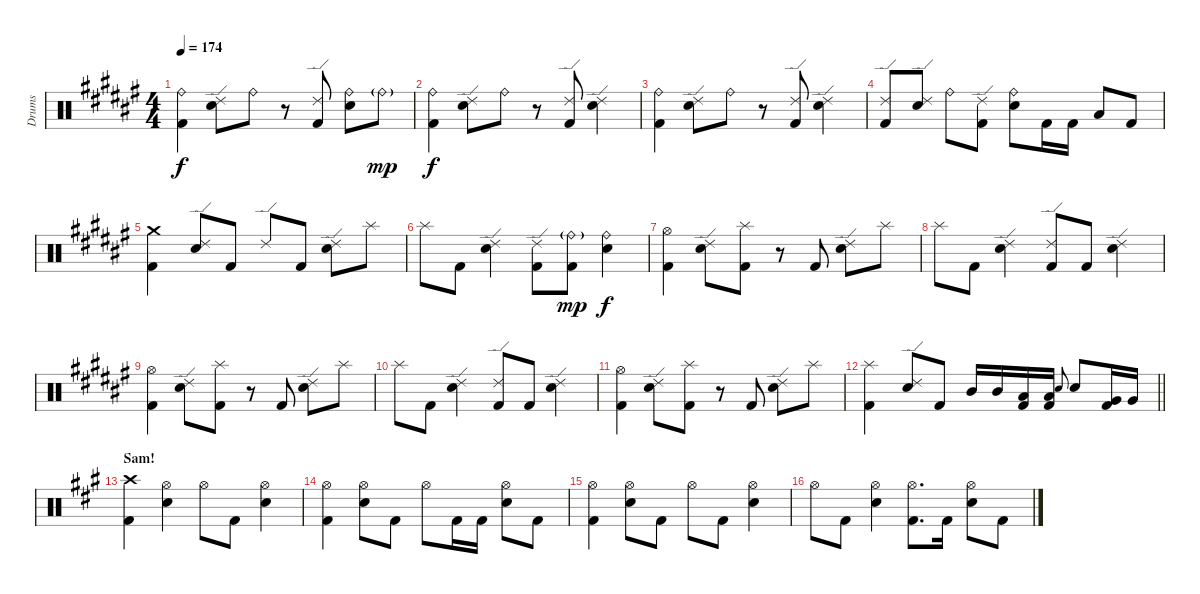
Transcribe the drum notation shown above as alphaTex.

\track ("Drums" "Drums") {instrument percussion}
\staff {score}
\articulation defaults
\ts (4 4)
\tempo 174
\clef neutral
\ks f#
("Ride (bell)" "Kick (hit) 2").4{dy f} ("Ride (edge) 2" "Snare (hit) 2").8 "Ride (bell)".8 r.8 ("Ride (edge) 2" "Kick (hit) 2").8 ("Ride (bell)" "Snare (hit) 2").8 "Ride (bell)"{g}.8{dy mp} |
("Ride (bell)" "Kick (hit) 2").4{dy f} ("Ride (edge) 2" "Snare (hit) 2").8 "Ride (bell)".8 r.8 ("Ride (edge) 2" "Kick (hit) 2").8 ("Ride (edge) 2" "Snare (hit) 2").4 |
("Ride (bell)" "Kick (hit) 2").4 ("Ride (edge) 2" "Snare (hit) 2").8 "Ride (bell)".8 r.8 ("Ride (edge) 2" "Kick (hit) 2").8 ("Ride (edge) 2" "Snare (hit) 2").4 |
("Ride (edge) 2" "Kick (hit) 2").8 ("Ride (edge) 2" "Snare (hit) 2").8 "Ride (bell)".8 ("Ride (edge) 2" "Kick (hit) 2").8 ("Ride (bell)" "Snare (hit) 2").8 "Kick (hit) 2".16 "Kick (hit) 2".16 "Low Tom (hit)".8 "Kick (hit) 2".8 |
("Crash medium (hit)" "Kick (hit) 2").4 ("Ride (edge) 2" "Snare (hit) 2").8 "Kick (hit) 2".8 "Ride (edge) 2".8 "Kick (hit) 2".8 ("Ride (edge) 2" "Snare (hit) 2").8 "Splash (hit)".8 |
"Splash (hit)".8 "Kick (hit) 2".8 ("Ride (edge) 2" "Snare (hit) 2").4 ("Ride (edge) 2" "Kick (hit) 2").8 ("Ride (bell)"{g} "Kick (hit) 2").8{dy mp} ("Ride (bell)" "Snare (hit) 2").4{dy f} |
("Hi-Hat (open)" "Kick (hit) 2").4 ("Ride (edge) 2" "Snare (hit) 2").8 ("Splash (hit)" "Kick (hit) 2").8 r.8 "Kick (hit) 2".8 ("Ride (edge) 2" "Snare (hit) 2").8 "Splash (hit)".8 |
"Splash (hit)".8 "Kick (hit) 2".8 ("Ride (edge) 2" "Snare (hit) 2").4 ("Ride (edge) 2" "Kick (hit) 2").8 "Kick (hit) 2".8 ("Ride (edge) 2" "Snare (hit) 2").4 |
("Hi-Hat (open)" "Kick (hit) 2").4 ("Ride (edge) 2" "Snare (hit) 2").8 ("Splash (hit)" "Kick (hit) 2").8 r.8 "Kick (hit) 2".8 ("Ride (edge) 2" "Snare (hit) 2").8 "Splash (hit)".8 |
"Splash (hit)".8 "Kick (hit) 2".8 ("Ride (edge) 2" "Snare (hit) 2").4 ("Ride (edge) 2" "Kick (hit) 2").8 "Kick (hit) 2".8 ("Ride (edge) 2" "Snare (hit) 2").4 |
("Hi-Hat (open)" "Kick (hit) 2").4 ("Ride (edge) 2" "Snare (hit) 2").8 ("Splash (hit)" "Kick (hit) 2").8 r.8 "Kick (hit) 2".8 ("Ride (edge) 2" "Snare (hit) 2").8 "Splash (hit)".8 |
\barLineRight lightlight
("Splash (hit)" "Kick (hit) 2").4 ("Ride (edge) 2" "Snare (hit) 2").8 "Kick (hit) 2".8 "Mid Tom (hit)".16 "Mid Tom (hit)".16 ("Low Tom (hit)" "Kick (hit) 2").16 ("Low Tom (hit)" "Kick (hit) 2").16 "Snare (hit) 2".8{gr onbeat} "Snare (hit) 2".8 ("Very Low Tom (hit)" "Kick (hit) 2").16 "Very Low Tom (hit)".16 |
\section ("" "Sam!")
\ks f#minor
("Crash high (hit)" "Kick (hit) 2").4 ("Hi-Hat (open)" "Snare (hit) 2").4 "Hi-Hat (open)".8 "Kick (hit) 2".8 ("Hi-Hat (open)" "Snare (hit) 2").4 |
("Hi-Hat (open)" "Kick (hit) 2").4 ("Hi-Hat (open)" "Snare (hit) 2").8 "Kick (hit) 2".8 "Hi-Hat (open)".8 "Kick (hit) 2".16 "Kick (hit) 2".16 ("Hi-Hat (open)" "Snare (hit) 2").8 "Kick (hit) 2".8 |
("Hi-Hat (open)" "Kick (hit) 2").4 ("Hi-Hat (open)" "Snare (hit) 2").8 "Kick (hit) 2".8 "Hi-Hat (open)".8 "Kick (hit) 2".8 ("Hi-Hat (open)" "Snare (hit) 2").4 |
"Hi-Hat (open)".8 "Kick (hit) 2".8 ("Hi-Hat (open)" "Snare (hit) 2").4 ("Hi-Hat (open)" "Kick (hit) 2").8{d} "Kick (hit) 2".16 ("Hi-Hat (open)" "Snare (hit) 2").8 "Kick (hit) 2".8
